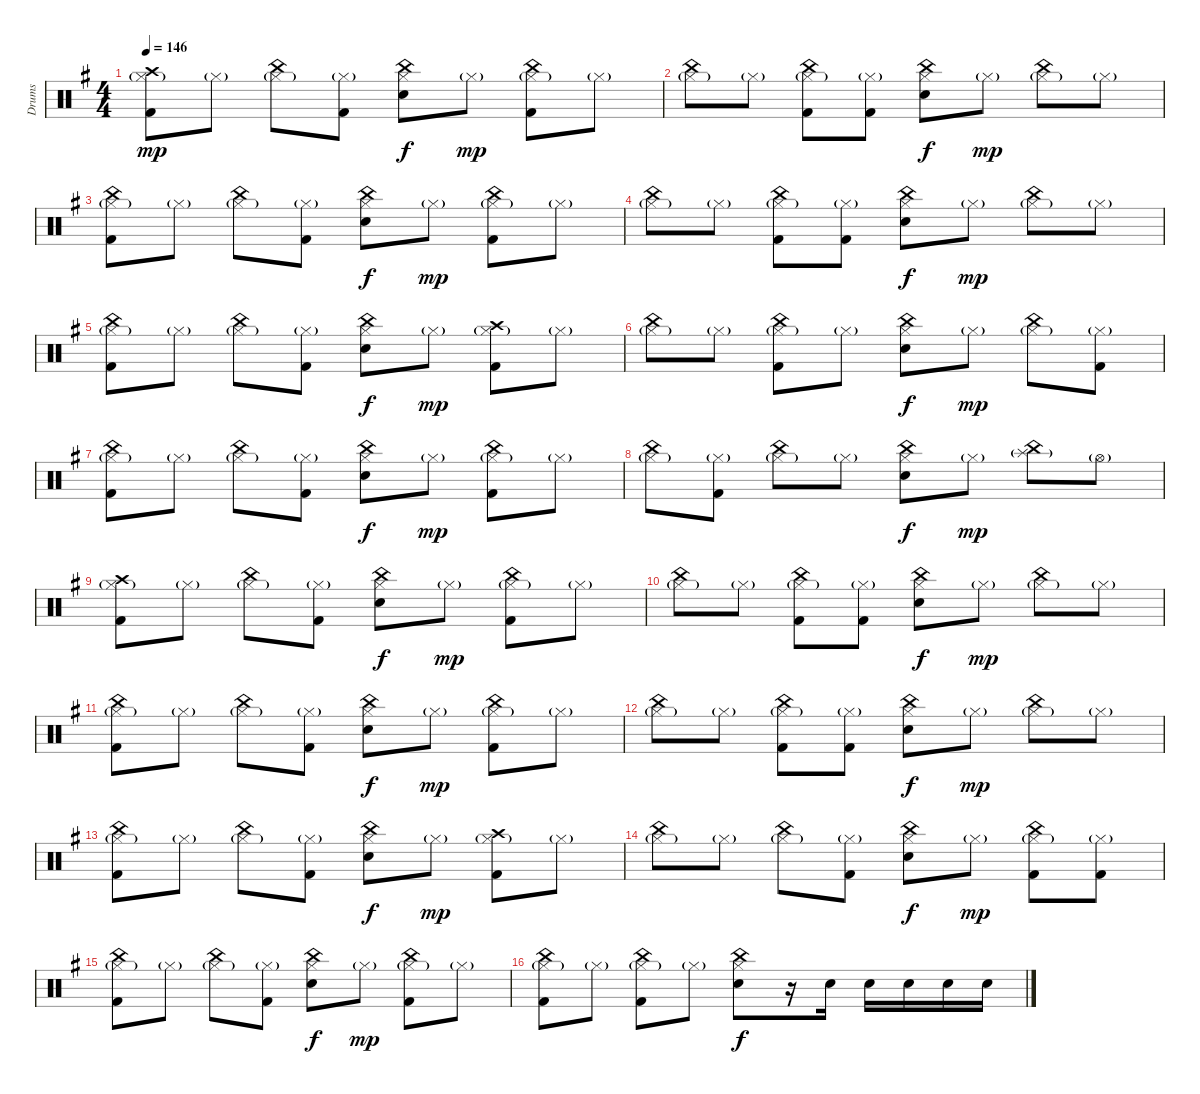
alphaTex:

\track ("Drums" "Drums") {instrument percussion}
\staff {score}
\articulation defaults
\ts (4 4)
\tempo 146
\clef neutral
\ks eminor
("Crash high (hit)" "Hi-Hat (closed)"{g} "Kick (hit) 2").8{dy mp} "Hi-Hat (closed)"{g}.8 ("China (hit)" "Hi-Hat (closed)"{g}).8 ("Hi-Hat (closed)"{g} "Kick (hit) 2").8 ("China (hit)" "Hi-Hat (closed)" "Snare (hit) 2").8{dy f} "Hi-Hat (closed)"{g}.8{dy mp} ("China (hit)" "Hi-Hat (closed)"{g} "Kick (hit) 2").8 "Hi-Hat (closed)"{g}.8 |
("China (hit)" "Hi-Hat (closed)"{g}).8 "Hi-Hat (closed)"{g}.8 ("China (hit)" "Hi-Hat (closed)"{g} "Kick (hit) 2").8 ("Hi-Hat (closed)"{g} "Kick (hit) 2").8 ("China (hit)" "Hi-Hat (closed)" "Snare (hit) 2").8{dy f} "Hi-Hat (closed)"{g}.8{dy mp} ("China (hit)" "Hi-Hat (closed)"{g}).8 "Hi-Hat (closed)"{g}.8 |
("China (hit)" "Hi-Hat (closed)"{g} "Kick (hit) 2").8 "Hi-Hat (closed)"{g}.8 ("China (hit)" "Hi-Hat (closed)"{g}).8 ("Hi-Hat (closed)"{g} "Kick (hit) 2").8 ("China (hit)" "Hi-Hat (closed)" "Snare (hit) 2").8{dy f} "Hi-Hat (closed)"{g}.8{dy mp} ("China (hit)" "Hi-Hat (closed)"{g} "Kick (hit) 2").8 "Hi-Hat (closed)"{g}.8 |
("China (hit)" "Hi-Hat (closed)"{g}).8 "Hi-Hat (closed)"{g}.8 ("China (hit)" "Hi-Hat (closed)"{g} "Kick (hit) 2").8 ("Hi-Hat (closed)"{g} "Kick (hit) 2").8 ("China (hit)" "Hi-Hat (closed)" "Snare (hit) 2").8{dy f} "Hi-Hat (closed)"{g}.8{dy mp} ("China (hit)" "Hi-Hat (closed)"{g}).8 "Hi-Hat (closed)"{g}.8 |
("China (hit)" "Hi-Hat (closed)"{g} "Kick (hit) 2").8 "Hi-Hat (closed)"{g}.8 ("China (hit)" "Hi-Hat (closed)"{g}).8 ("Hi-Hat (closed)"{g} "Kick (hit) 2").8 ("China (hit)" "Hi-Hat (closed)" "Snare (hit) 2").8{dy f} "Hi-Hat (closed)"{g}.8{dy mp} ("Crash high (hit)" "Hi-Hat (closed)"{g} "Kick (hit) 2").8 "Hi-Hat (closed)"{g}.8 |
("China (hit)" "Hi-Hat (closed)"{g}).8 "Hi-Hat (closed)"{g}.8 ("China (hit)" "Hi-Hat (closed)"{g} "Kick (hit) 2").8 "Hi-Hat (closed)"{g}.8 ("China (hit)" "Hi-Hat (closed)" "Snare (hit) 2").8{dy f} "Hi-Hat (closed)"{g}.8{dy mp} ("China (hit)" "Hi-Hat (closed)"{g}).8 ("Hi-Hat (closed)"{g} "Kick (hit) 2").8 |
("China (hit)" "Hi-Hat (closed)"{g} "Kick (hit) 2").8 "Hi-Hat (closed)"{g}.8 ("China (hit)" "Hi-Hat (closed)"{g}).8 ("Hi-Hat (closed)"{g} "Kick (hit) 2").8 ("China (hit)" "Hi-Hat (closed)" "Snare (hit) 2").8{dy f} "Hi-Hat (closed)"{g}.8{dy mp} ("China (hit)" "Hi-Hat (closed)"{g} "Kick (hit) 2").8 "Hi-Hat (closed)"{g}.8 |
("China (hit)" "Hi-Hat (closed)"{g}).8 ("Hi-Hat (closed)"{g} "Kick (hit) 2").8 ("China (hit)" "Hi-Hat (closed)"{g}).8 "Hi-Hat (closed)"{g}.8 ("China (hit)" "Hi-Hat (closed)" "Snare (hit) 2").8{dy f} "Hi-Hat (closed)"{g}.8{dy mp} ("China (hit)" "Splash (hit)"{g}).8 "Hi-Hat (open)"{g}.8 |
("Crash high (hit)" "Hi-Hat (closed)"{g} "Kick (hit) 2").8 "Hi-Hat (closed)"{g}.8 ("China (hit)" "Hi-Hat (closed)"{g}).8 ("Hi-Hat (closed)"{g} "Kick (hit) 2").8 ("China (hit)" "Hi-Hat (closed)" "Snare (hit) 2").8{dy f} "Hi-Hat (closed)"{g}.8{dy mp} ("China (hit)" "Hi-Hat (closed)"{g} "Kick (hit) 2").8 "Hi-Hat (closed)"{g}.8 |
("China (hit)" "Hi-Hat (closed)"{g}).8 "Hi-Hat (closed)"{g}.8 ("China (hit)" "Hi-Hat (closed)"{g} "Kick (hit) 2").8 ("Hi-Hat (closed)"{g} "Kick (hit) 2").8 ("China (hit)" "Hi-Hat (closed)" "Snare (hit) 2").8{dy f} "Hi-Hat (closed)"{g}.8{dy mp} ("China (hit)" "Hi-Hat (closed)"{g}).8 "Hi-Hat (closed)"{g}.8 |
("China (hit)" "Hi-Hat (closed)"{g} "Kick (hit) 2").8 "Hi-Hat (closed)"{g}.8 ("China (hit)" "Hi-Hat (closed)"{g}).8 ("Hi-Hat (closed)"{g} "Kick (hit) 2").8 ("China (hit)" "Hi-Hat (closed)" "Snare (hit) 2").8{dy f} "Hi-Hat (closed)"{g}.8{dy mp} ("China (hit)" "Hi-Hat (closed)"{g} "Kick (hit) 2").8 "Hi-Hat (closed)"{g}.8 |
("China (hit)" "Hi-Hat (closed)"{g}).8 "Hi-Hat (closed)"{g}.8 ("China (hit)" "Hi-Hat (closed)"{g} "Kick (hit) 2").8 ("Hi-Hat (closed)"{g} "Kick (hit) 2").8 ("China (hit)" "Hi-Hat (closed)" "Snare (hit) 2").8{dy f} "Hi-Hat (closed)"{g}.8{dy mp} ("China (hit)" "Hi-Hat (closed)"{g}).8 "Hi-Hat (closed)"{g}.8 |
("China (hit)" "Hi-Hat (closed)"{g} "Kick (hit) 2").8 "Hi-Hat (closed)"{g}.8 ("China (hit)" "Hi-Hat (closed)"{g}).8 ("Hi-Hat (closed)"{g} "Kick (hit) 2").8 ("China (hit)" "Hi-Hat (closed)" "Snare (hit) 2").8{dy f} "Hi-Hat (closed)"{g}.8{dy mp} ("Crash high (hit)" "Hi-Hat (closed)"{g} "Kick (hit) 2").8 "Hi-Hat (closed)"{g}.8 |
("China (hit)" "Hi-Hat (closed)"{g}).8 "Hi-Hat (closed)"{g}.8 ("China (hit)" "Hi-Hat (closed)"{g}).8 ("Hi-Hat (closed)"{g} "Kick (hit) 2").8 ("China (hit)" "Hi-Hat (closed)" "Snare (hit) 2").8{dy f} "Hi-Hat (closed)"{g}.8{dy mp} ("China (hit)" "Hi-Hat (closed)"{g} "Kick (hit) 2").8 ("Hi-Hat (closed)"{g} "Kick (hit) 2").8 |
("China (hit)" "Hi-Hat (closed)"{g} "Kick (hit) 2").8 "Hi-Hat (closed)"{g}.8 ("China (hit)" "Hi-Hat (closed)"{g}).8 ("Hi-Hat (closed)"{g} "Kick (hit) 2").8 ("China (hit)" "Hi-Hat (closed)" "Snare (hit) 2").8{dy f} "Hi-Hat (closed)"{g}.8{dy mp} ("China (hit)" "Hi-Hat (closed)"{g} "Kick (hit) 2").8 "Hi-Hat (closed)"{g}.8 |
("China (hit)" "Hi-Hat (closed)"{g} "Kick (hit) 2").8 "Hi-Hat (closed)"{g}.8 ("China (hit)" "Hi-Hat (closed)"{g} "Kick (hit) 2").8 "Hi-Hat (closed)"{g}.8 ("China (hit)" "Hi-Hat (closed)" "Snare (hit) 2").8{dy f} r.16 "Electric Snare (hit)".16 "Electric Snare (hit)".16 "Electric Snare (hit)".16 "Electric Snare (hit)".16 "Electric Snare (hit)".16
